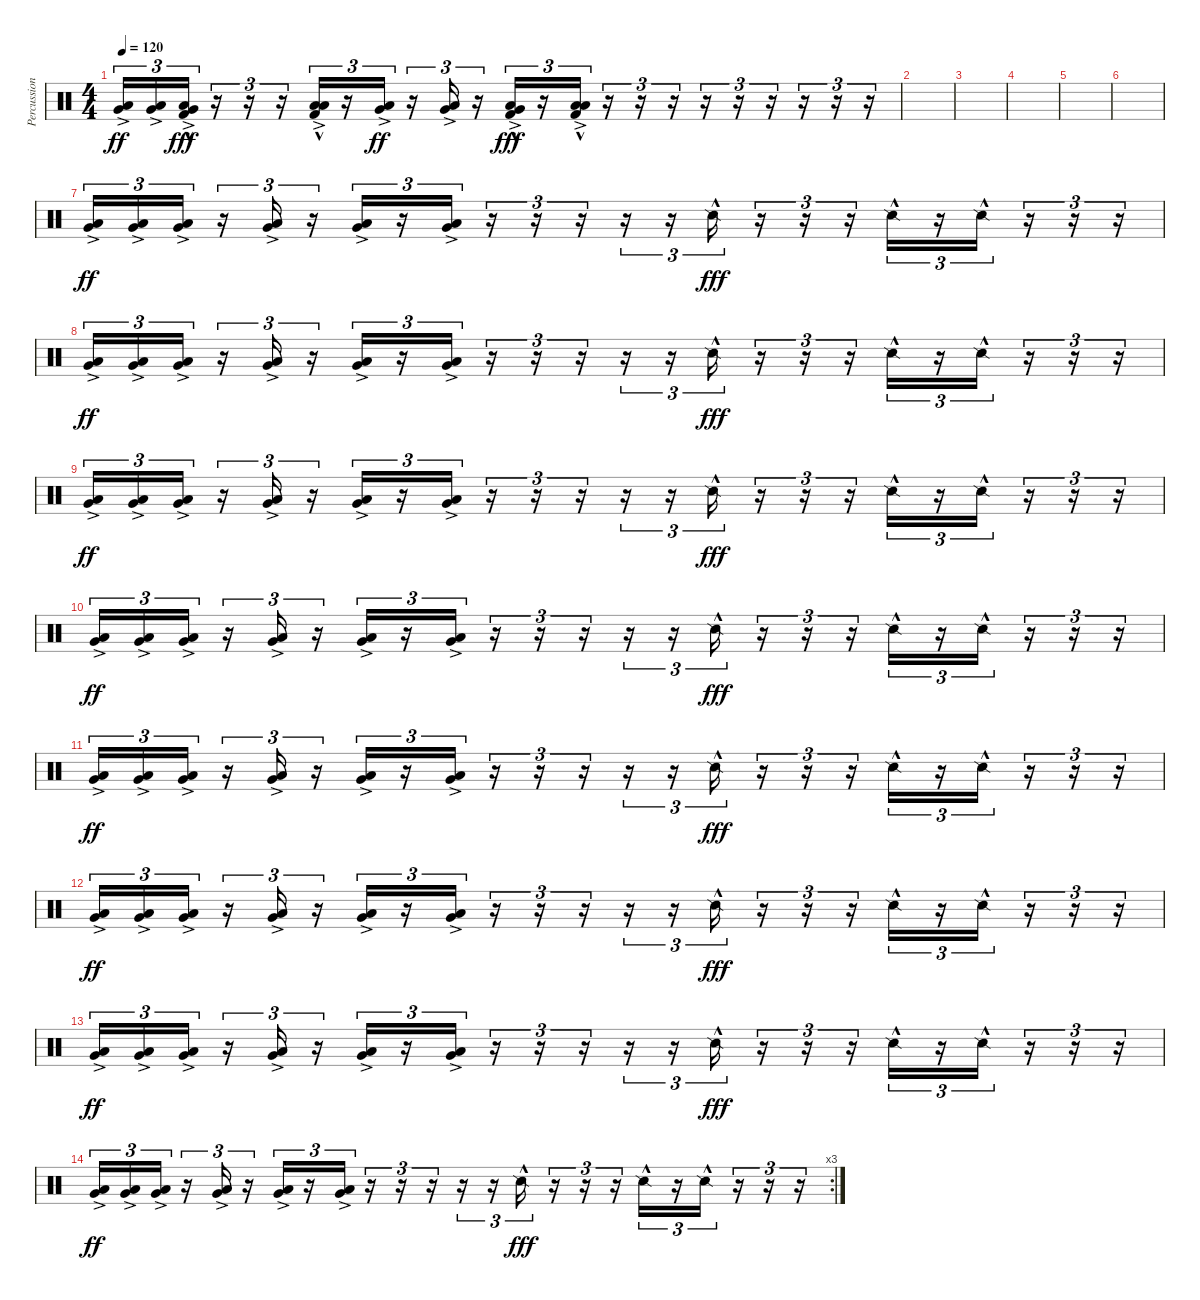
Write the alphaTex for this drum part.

\track ("Percussion" "Percussion") {instrument percussion}
\staff {score}
\articulation defaults
\ts (4 4)
\tempo 120
\clef neutral
\ks c
("Very Low Tom (hit)"{ac} "Low Floor Tom (hit)"{ac}).16{tu (3 2) dy ff} ("Very Low Tom (hit)"{ac} "Low Floor Tom (hit)"{ac}).16{tu (3 2)} ("Very Low Tom (hit)"{ac} "Low Floor Tom (hit)"{ac} "Kick (hit) 2"{hac}).16{tu (3 2) dy fff} r.16{tu (3 2)} r.16{tu (3 2)} r.16{tu (3 2)} ("Low Floor Tom (hit)"{ac} "Low Floor Tom (hit)"{ac} "Kick (hit) 2"{hac}).16{tu (3 2)} r.16{tu (3 2)} ("Low Floor Tom (hit)"{ac} "Very Low Tom (hit)"{ac}).16{tu (3 2) dy ff} r.16{tu (3 2)} ("Very Low Tom (hit)"{ac} "Low Floor Tom (hit)"{ac}).16{tu (3 2)} r.16{tu (3 2)} ("Very Low Tom (hit)"{ac} "Low Floor Tom (hit)"{ac} "Kick (hit) 2"{hac}).16{tu (3 2) dy fff} r.16{tu (3 2)} ("Low Floor Tom (hit)"{ac} "Low Floor Tom (hit)"{ac} "Kick (hit) 2"{hac}).16{tu (3 2)} r.16{tu (3 2)} r.16{tu (3 2)} r.16{tu (3 2)} r.16{tu (3 2)} r.16{tu (3 2)} r.16{tu (3 2)} r.16{tu (3 2)} r.16{tu (3 2)} r.16{tu (3 2)} |
|
|
|
|
|
("Very Low Tom (hit)"{ac} "Low Floor Tom (hit)"{ac}).16{tu (3 2) dy ff} ("Very Low Tom (hit)"{ac} "Low Floor Tom (hit)"{ac}).16{tu (3 2)} ("Very Low Tom (hit)"{ac} "Low Floor Tom (hit)"{ac}).16{tu (3 2)} r.16{tu (3 2)} ("Very Low Tom (hit)"{ac} "Low Floor Tom (hit)"{ac}).16{tu (3 2)} r.16{tu (3 2)} ("Very Low Tom (hit)"{ac} "Low Floor Tom (hit)"{ac}).16{tu (3 2)} r.16{tu (3 2)} ("Very Low Tom (hit)"{ac} "Low Floor Tom (hit)"{ac}).16{tu (3 2)} r.16{tu (3 2)} r.16{tu (3 2)} r.16{tu (3 2)} r.16{tu (3 2)} r.16{tu (3 2)} "Snare (side stick) 2"{hac}.16{tu (3 2) dy fff} r.16{tu (3 2)} r.16{tu (3 2)} r.16{tu (3 2)} "Snare (side stick) 2"{hac}.16{tu (3 2)} r.16{tu (3 2)} "Snare (side stick) 2"{hac}.16{tu (3 2)} r.16{tu (3 2)} r.16{tu (3 2)} r.16{tu (3 2)} |
("Very Low Tom (hit)"{ac} "Low Floor Tom (hit)"{ac}).16{tu (3 2) dy ff} ("Very Low Tom (hit)"{ac} "Low Floor Tom (hit)"{ac}).16{tu (3 2)} ("Very Low Tom (hit)"{ac} "Low Floor Tom (hit)"{ac}).16{tu (3 2)} r.16{tu (3 2)} ("Very Low Tom (hit)"{ac} "Low Floor Tom (hit)"{ac}).16{tu (3 2)} r.16{tu (3 2)} ("Very Low Tom (hit)"{ac} "Low Floor Tom (hit)"{ac}).16{tu (3 2)} r.16{tu (3 2)} ("Very Low Tom (hit)"{ac} "Low Floor Tom (hit)"{ac}).16{tu (3 2)} r.16{tu (3 2)} r.16{tu (3 2)} r.16{tu (3 2)} r.16{tu (3 2)} r.16{tu (3 2)} "Snare (side stick) 2"{hac}.16{tu (3 2) dy fff} r.16{tu (3 2)} r.16{tu (3 2)} r.16{tu (3 2)} "Snare (side stick) 2"{hac}.16{tu (3 2)} r.16{tu (3 2)} "Snare (side stick) 2"{hac}.16{tu (3 2)} r.16{tu (3 2)} r.16{tu (3 2)} r.16{tu (3 2)} |
("Very Low Tom (hit)"{ac} "Low Floor Tom (hit)"{ac}).16{tu (3 2) dy ff} ("Very Low Tom (hit)"{ac} "Low Floor Tom (hit)"{ac}).16{tu (3 2)} ("Very Low Tom (hit)"{ac} "Low Floor Tom (hit)"{ac}).16{tu (3 2)} r.16{tu (3 2)} ("Very Low Tom (hit)"{ac} "Low Floor Tom (hit)"{ac}).16{tu (3 2)} r.16{tu (3 2)} ("Very Low Tom (hit)"{ac} "Low Floor Tom (hit)"{ac}).16{tu (3 2)} r.16{tu (3 2)} ("Very Low Tom (hit)"{ac} "Low Floor Tom (hit)"{ac}).16{tu (3 2)} r.16{tu (3 2)} r.16{tu (3 2)} r.16{tu (3 2)} r.16{tu (3 2)} r.16{tu (3 2)} "Snare (side stick) 2"{hac}.16{tu (3 2) dy fff} r.16{tu (3 2)} r.16{tu (3 2)} r.16{tu (3 2)} "Snare (side stick) 2"{hac}.16{tu (3 2)} r.16{tu (3 2)} "Snare (side stick) 2"{hac}.16{tu (3 2)} r.16{tu (3 2)} r.16{tu (3 2)} r.16{tu (3 2)} |
("Very Low Tom (hit)"{ac} "Low Floor Tom (hit)"{ac}).16{tu (3 2) dy ff} ("Very Low Tom (hit)"{ac} "Low Floor Tom (hit)"{ac}).16{tu (3 2)} ("Very Low Tom (hit)"{ac} "Low Floor Tom (hit)"{ac}).16{tu (3 2)} r.16{tu (3 2)} ("Very Low Tom (hit)"{ac} "Low Floor Tom (hit)"{ac}).16{tu (3 2)} r.16{tu (3 2)} ("Very Low Tom (hit)"{ac} "Low Floor Tom (hit)"{ac}).16{tu (3 2)} r.16{tu (3 2)} ("Very Low Tom (hit)"{ac} "Low Floor Tom (hit)"{ac}).16{tu (3 2)} r.16{tu (3 2)} r.16{tu (3 2)} r.16{tu (3 2)} r.16{tu (3 2)} r.16{tu (3 2)} "Snare (side stick) 2"{hac}.16{tu (3 2) dy fff} r.16{tu (3 2)} r.16{tu (3 2)} r.16{tu (3 2)} "Snare (side stick) 2"{hac}.16{tu (3 2)} r.16{tu (3 2)} "Snare (side stick) 2"{hac}.16{tu (3 2)} r.16{tu (3 2)} r.16{tu (3 2)} r.16{tu (3 2)} |
("Very Low Tom (hit)"{ac} "Low Floor Tom (hit)"{ac}).16{tu (3 2) dy ff} ("Very Low Tom (hit)"{ac} "Low Floor Tom (hit)"{ac}).16{tu (3 2)} ("Very Low Tom (hit)"{ac} "Low Floor Tom (hit)"{ac}).16{tu (3 2)} r.16{tu (3 2)} ("Very Low Tom (hit)"{ac} "Low Floor Tom (hit)"{ac}).16{tu (3 2)} r.16{tu (3 2)} ("Very Low Tom (hit)"{ac} "Low Floor Tom (hit)"{ac}).16{tu (3 2)} r.16{tu (3 2)} ("Very Low Tom (hit)"{ac} "Low Floor Tom (hit)"{ac}).16{tu (3 2)} r.16{tu (3 2)} r.16{tu (3 2)} r.16{tu (3 2)} r.16{tu (3 2)} r.16{tu (3 2)} "Snare (side stick) 2"{hac}.16{tu (3 2) dy fff} r.16{tu (3 2)} r.16{tu (3 2)} r.16{tu (3 2)} "Snare (side stick) 2"{hac}.16{tu (3 2)} r.16{tu (3 2)} "Snare (side stick) 2"{hac}.16{tu (3 2)} r.16{tu (3 2)} r.16{tu (3 2)} r.16{tu (3 2)} |
("Very Low Tom (hit)"{ac} "Low Floor Tom (hit)"{ac}).16{tu (3 2) dy ff} ("Very Low Tom (hit)"{ac} "Low Floor Tom (hit)"{ac}).16{tu (3 2)} ("Very Low Tom (hit)"{ac} "Low Floor Tom (hit)"{ac}).16{tu (3 2)} r.16{tu (3 2)} ("Very Low Tom (hit)"{ac} "Low Floor Tom (hit)"{ac}).16{tu (3 2)} r.16{tu (3 2)} ("Very Low Tom (hit)"{ac} "Low Floor Tom (hit)"{ac}).16{tu (3 2)} r.16{tu (3 2)} ("Very Low Tom (hit)"{ac} "Low Floor Tom (hit)"{ac}).16{tu (3 2)} r.16{tu (3 2)} r.16{tu (3 2)} r.16{tu (3 2)} r.16{tu (3 2)} r.16{tu (3 2)} "Snare (side stick) 2"{hac}.16{tu (3 2) dy fff} r.16{tu (3 2)} r.16{tu (3 2)} r.16{tu (3 2)} "Snare (side stick) 2"{hac}.16{tu (3 2)} r.16{tu (3 2)} "Snare (side stick) 2"{hac}.16{tu (3 2)} r.16{tu (3 2)} r.16{tu (3 2)} r.16{tu (3 2)} |
("Very Low Tom (hit)"{ac} "Low Floor Tom (hit)"{ac}).16{tu (3 2) dy ff} ("Very Low Tom (hit)"{ac} "Low Floor Tom (hit)"{ac}).16{tu (3 2)} ("Very Low Tom (hit)"{ac} "Low Floor Tom (hit)"{ac}).16{tu (3 2)} r.16{tu (3 2)} ("Very Low Tom (hit)"{ac} "Low Floor Tom (hit)"{ac}).16{tu (3 2)} r.16{tu (3 2)} ("Very Low Tom (hit)"{ac} "Low Floor Tom (hit)"{ac}).16{tu (3 2)} r.16{tu (3 2)} ("Very Low Tom (hit)"{ac} "Low Floor Tom (hit)"{ac}).16{tu (3 2)} r.16{tu (3 2)} r.16{tu (3 2)} r.16{tu (3 2)} r.16{tu (3 2)} r.16{tu (3 2)} "Snare (side stick) 2"{hac}.16{tu (3 2) dy fff} r.16{tu (3 2)} r.16{tu (3 2)} r.16{tu (3 2)} "Snare (side stick) 2"{hac}.16{tu (3 2)} r.16{tu (3 2)} "Snare (side stick) 2"{hac}.16{tu (3 2)} r.16{tu (3 2)} r.16{tu (3 2)} r.16{tu (3 2)} |
\rc 3
("Very Low Tom (hit)"{ac} "Low Floor Tom (hit)"{ac}).16{tu (3 2) dy ff} ("Very Low Tom (hit)"{ac} "Low Floor Tom (hit)"{ac}).16{tu (3 2)} ("Very Low Tom (hit)"{ac} "Low Floor Tom (hit)"{ac}).16{tu (3 2)} r.16{tu (3 2)} ("Very Low Tom (hit)"{ac} "Low Floor Tom (hit)"{ac}).16{tu (3 2)} r.16{tu (3 2)} ("Very Low Tom (hit)"{ac} "Low Floor Tom (hit)"{ac}).16{tu (3 2)} r.16{tu (3 2)} ("Very Low Tom (hit)"{ac} "Low Floor Tom (hit)"{ac}).16{tu (3 2)} r.16{tu (3 2)} r.16{tu (3 2)} r.16{tu (3 2)} r.16{tu (3 2)} r.16{tu (3 2)} "Snare (side stick) 2"{hac}.16{tu (3 2) dy fff} r.16{tu (3 2)} r.16{tu (3 2)} r.16{tu (3 2)} "Snare (side stick) 2"{hac}.16{tu (3 2)} r.16{tu (3 2)} "Snare (side stick) 2"{hac}.16{tu (3 2)} r.16{tu (3 2)} r.16{tu (3 2)} r.16{tu (3 2)}
